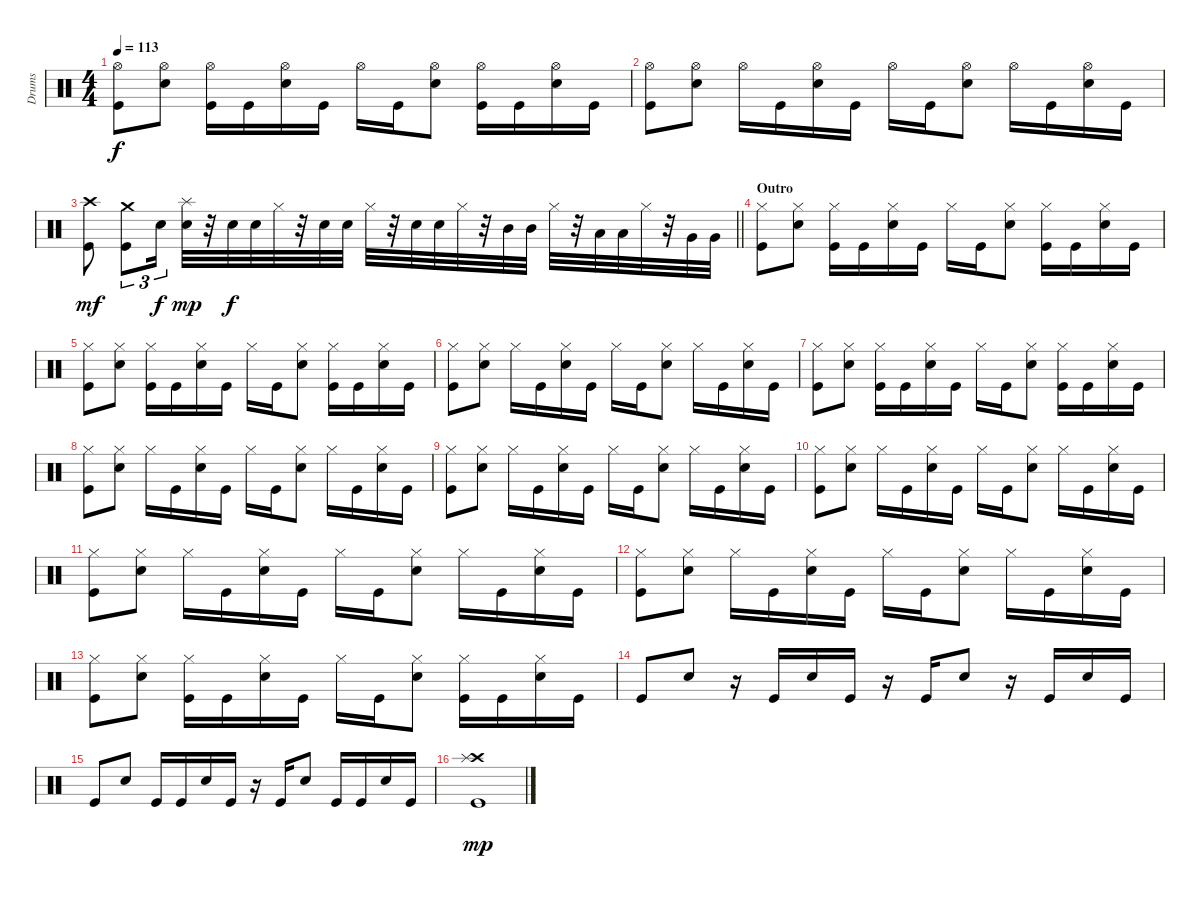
\track ("Drums" "Drums") {instrument percussion}
\staff {score}
\articulation defaults
\ts (4 4)
\tempo 113
\clef neutral
\ks c
("Hi-Hat (open)" "Kick (hit)").8{dy f} ("Hi-Hat (open)" "Snare (hit) 2").8 ("Hi-Hat (open)" "Kick (hit)").16 "Kick (hit)".16 ("Hi-Hat (open)" "Snare (hit) 2").16 "Kick (hit)".16 "Hi-Hat (open)".16 "Kick (hit)".16 ("Hi-Hat (open)" "Snare (hit) 2").8 ("Hi-Hat (open)" "Kick (hit)").16 "Kick (hit)".16 ("Hi-Hat (open)" "Snare (hit) 2").16 "Kick (hit)".16 |
("Hi-Hat (open)" "Kick (hit)").8 ("Hi-Hat (open)" "Snare (hit) 2").8 "Hi-Hat (open)".16 "Kick (hit)".16 ("Hi-Hat (open)" "Snare (hit) 2").16 "Kick (hit)".16 "Hi-Hat (open)".16 "Kick (hit)".16 ("Hi-Hat (open)" "Snare (hit) 2").8 "Hi-Hat (open)".16 "Kick (hit)".16 ("Hi-Hat (open)" "Snare (hit) 2").16 "Kick (hit)".16 |
\barLineRight lightlight
("Crash high (hit)" "Kick (hit)").8{dy mf} ("Crash medium (hit)" "Kick (hit)").8{tu (3 2)} "Snare (hit) 2".16{tu (3 2) dy f} ("Splash (hit)" "Snare (hit) 2").32{dy mp} r.32 "Snare (hit) 2".32{dy f} "Snare (hit) 2".32 "Hi-Hat (closed)".32 r.32 "Snare (hit) 2".32 "Snare (hit) 2".32 "Hi-Hat (closed)".32 r.32 "Snare (hit) 2".32 "Snare (hit) 2".32 "Hi-Hat (closed)".32 r.32 "Mid Tom (hit)".32 "Mid Tom (hit)".32 "Hi-Hat (closed)".32 r.32 "Low Tom (hit)".32 "Low Tom (hit)".32 "Hi-Hat (closed)".32 r.32 "Very Low Tom (hit)".32 "Very Low Tom (hit)".32 |
\section ("" "Outro")
("Hi-Hat (closed)" "Kick (hit)").8 ("Hi-Hat (closed)" "Snare (hit) 2").8 ("Hi-Hat (closed)" "Kick (hit)").16 "Kick (hit)".16 ("Hi-Hat (closed)" "Snare (hit) 2").16 "Kick (hit)".16 "Hi-Hat (closed)".16 "Kick (hit)".16 ("Hi-Hat (closed)" "Snare (hit) 2").8 ("Hi-Hat (closed)" "Kick (hit)").16 "Kick (hit)".16 ("Hi-Hat (closed)" "Snare (hit) 2").16 "Kick (hit)".16 |
("Hi-Hat (closed)" "Kick (hit)").8 ("Hi-Hat (closed)" "Snare (hit) 2").8 ("Hi-Hat (closed)" "Kick (hit)").16 "Kick (hit)".16 ("Hi-Hat (closed)" "Snare (hit) 2").16 "Kick (hit)".16 "Hi-Hat (closed)".16 "Kick (hit)".16 ("Hi-Hat (closed)" "Snare (hit) 2").8 ("Hi-Hat (closed)" "Kick (hit)").16 "Kick (hit)".16 ("Hi-Hat (closed)" "Snare (hit) 2").16 "Kick (hit)".16 |
("Hi-Hat (closed)" "Kick (hit)").8 ("Hi-Hat (closed)" "Snare (hit) 2").8 "Hi-Hat (closed)".16 "Kick (hit)".16 ("Hi-Hat (closed)" "Snare (hit) 2").16 "Kick (hit)".16 "Hi-Hat (closed)".16 "Kick (hit)".16 ("Hi-Hat (closed)" "Snare (hit) 2").8 "Hi-Hat (closed)".16 "Kick (hit)".16 ("Hi-Hat (closed)" "Snare (hit) 2").16 "Kick (hit)".16 |
("Hi-Hat (closed)" "Kick (hit)").8 ("Hi-Hat (closed)" "Snare (hit) 2").8 ("Hi-Hat (closed)" "Kick (hit)").16 "Kick (hit)".16 ("Hi-Hat (closed)" "Snare (hit) 2").16 "Kick (hit)".16 "Hi-Hat (closed)".16 "Kick (hit)".16 ("Hi-Hat (closed)" "Snare (hit) 2").8 ("Hi-Hat (closed)" "Kick (hit)").16 "Kick (hit)".16 ("Hi-Hat (closed)" "Snare (hit) 2").16 "Kick (hit)".16 |
("Hi-Hat (closed)" "Kick (hit)").8 ("Hi-Hat (closed)" "Snare (hit) 2").8 "Hi-Hat (closed)".16 "Kick (hit)".16 ("Hi-Hat (closed)" "Snare (hit) 2").16 "Kick (hit)".16 "Hi-Hat (closed)".16 "Kick (hit)".16 ("Hi-Hat (closed)" "Snare (hit) 2").8 "Hi-Hat (closed)".16 "Kick (hit)".16 ("Hi-Hat (closed)" "Snare (hit) 2").16 "Kick (hit)".16 |
("Hi-Hat (closed)" "Kick (hit)").8 ("Hi-Hat (closed)" "Snare (hit) 2").8 "Hi-Hat (closed)".16 "Kick (hit)".16 ("Hi-Hat (closed)" "Snare (hit) 2").16 "Kick (hit)".16 "Hi-Hat (closed)".16 "Kick (hit)".16 ("Hi-Hat (closed)" "Snare (hit) 2").8 "Hi-Hat (closed)".16 "Kick (hit)".16 ("Hi-Hat (closed)" "Snare (hit) 2").16 "Kick (hit)".16 |
("Hi-Hat (closed)" "Kick (hit)").8 ("Hi-Hat (closed)" "Snare (hit) 2").8 "Hi-Hat (closed)".16 "Kick (hit)".16 ("Hi-Hat (closed)" "Snare (hit) 2").16 "Kick (hit)".16 "Hi-Hat (closed)".16 "Kick (hit)".16 ("Hi-Hat (closed)" "Snare (hit) 2").8 "Hi-Hat (closed)".16 "Kick (hit)".16 ("Hi-Hat (closed)" "Snare (hit) 2").16 "Kick (hit)".16 |
("Hi-Hat (closed)" "Kick (hit)").8 ("Hi-Hat (closed)" "Snare (hit) 2").8 "Hi-Hat (closed)".16 "Kick (hit)".16 ("Hi-Hat (closed)" "Snare (hit) 2").16 "Kick (hit)".16 "Hi-Hat (closed)".16 "Kick (hit)".16 ("Hi-Hat (closed)" "Snare (hit) 2").8 "Hi-Hat (closed)".16 "Kick (hit)".16 ("Hi-Hat (closed)" "Snare (hit) 2").16 "Kick (hit)".16 |
("Hi-Hat (closed)" "Kick (hit)").8 ("Hi-Hat (closed)" "Snare (hit) 2").8 "Hi-Hat (closed)".16 "Kick (hit)".16 ("Hi-Hat (closed)" "Snare (hit) 2").16 "Kick (hit)".16 "Hi-Hat (closed)".16 "Kick (hit)".16 ("Hi-Hat (closed)" "Snare (hit) 2").8 "Hi-Hat (closed)".16 "Kick (hit)".16 ("Hi-Hat (closed)" "Snare (hit) 2").16 "Kick (hit)".16 |
("Hi-Hat (closed)" "Kick (hit)").8 ("Hi-Hat (closed)" "Snare (hit) 2").8 ("Hi-Hat (closed)" "Kick (hit)").16 "Kick (hit)".16 ("Hi-Hat (closed)" "Snare (hit) 2").16 "Kick (hit)".16 "Hi-Hat (closed)".16 "Kick (hit)".16 ("Hi-Hat (closed)" "Snare (hit) 2").8 ("Hi-Hat (closed)" "Kick (hit)").16 "Kick (hit)".16 ("Hi-Hat (closed)" "Snare (hit) 2").16 "Kick (hit)".16 |
"Kick (hit)".8 "Snare (hit) 2".8 r.16 "Kick (hit)".16 "Snare (hit) 2".16 "Kick (hit)".16 r.16 "Kick (hit)".16 "Snare (hit) 2".8 r.16 "Kick (hit)".16 "Snare (hit) 2".16 "Kick (hit)".16 |
"Kick (hit)".8 "Snare (hit) 2".8 "Kick (hit)".16 "Kick (hit)".16 "Snare (hit) 2".16 "Kick (hit)".16 r.16 "Kick (hit)".16 "Snare (hit) 2".8 "Kick (hit)".16 "Kick (hit)".16 "Snare (hit) 2".16 "Kick (hit)".16 |
("Crash high (hit)" "Splash (hit)" "Kick (hit)").1{dy mp}
